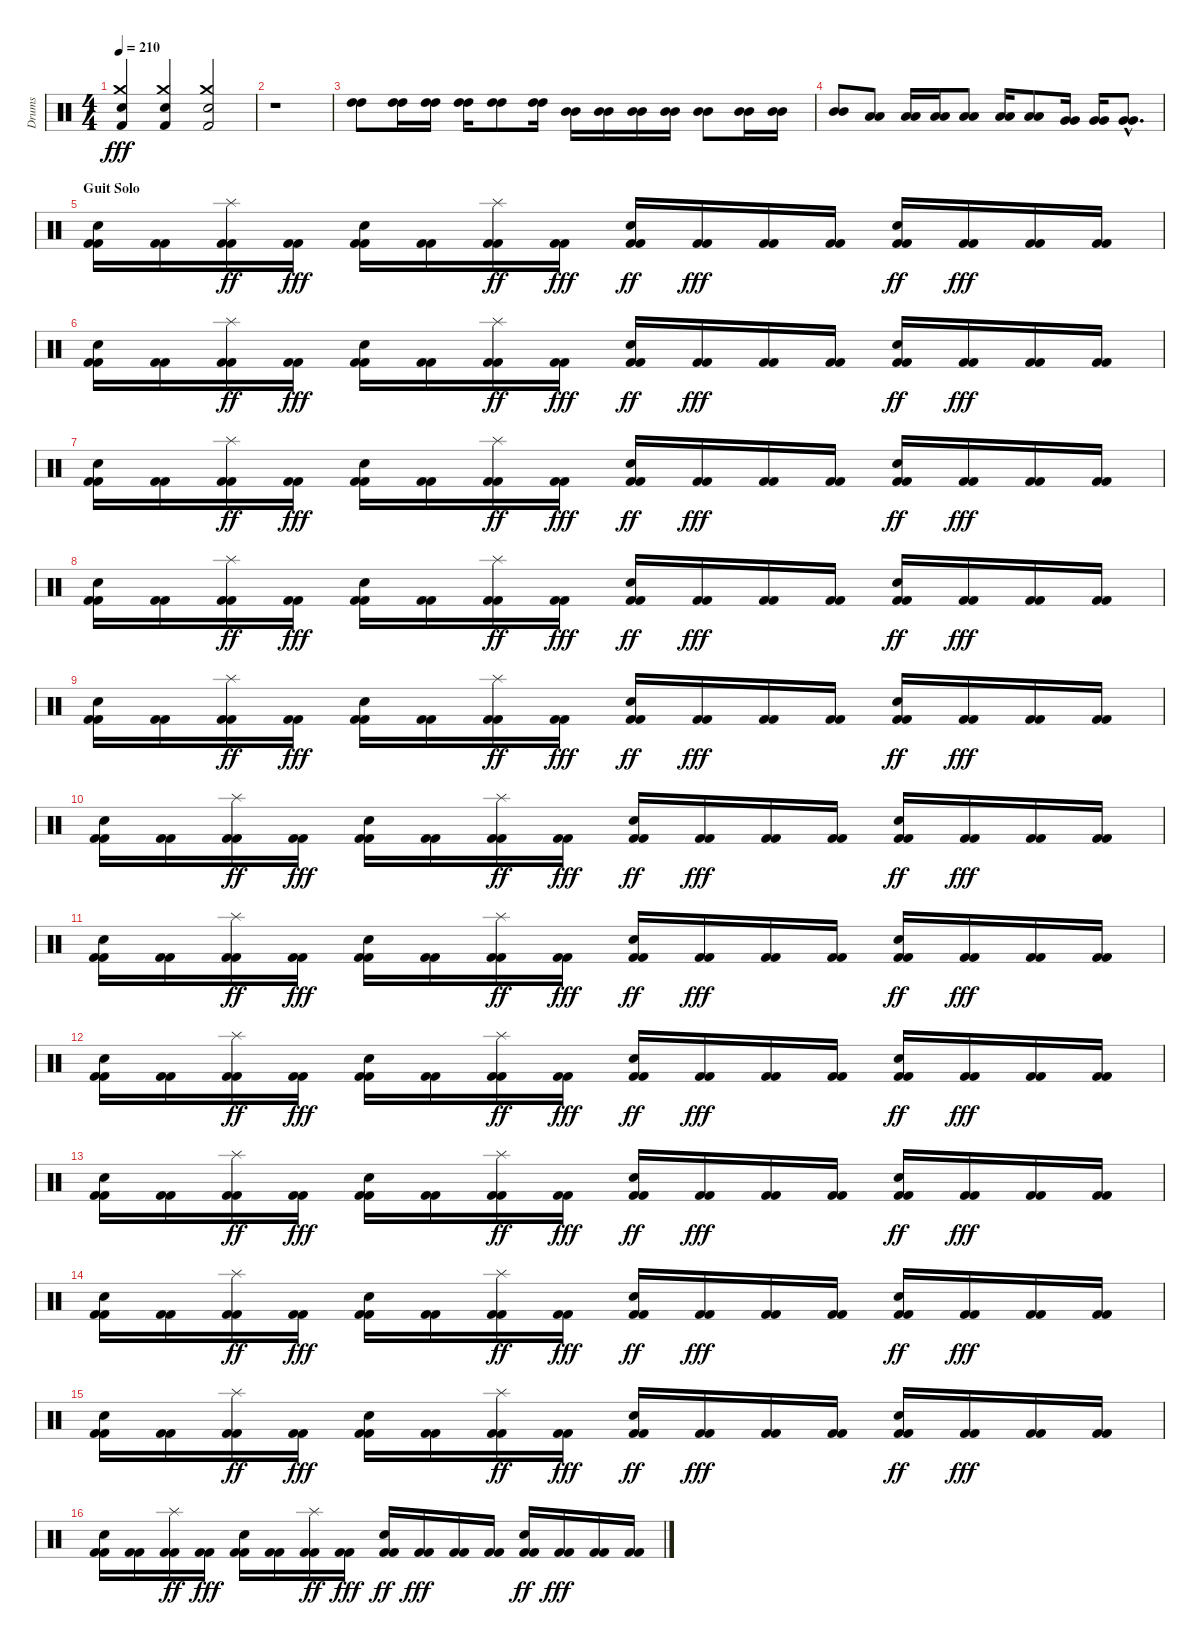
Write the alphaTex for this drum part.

\track ("Drums" "Drums") {instrument percussion}
\staff {score}
\articulation defaults
\ts (4 4)
\tempo 210
\clef neutral
\ks c
("Electric Snare (hit)" "Crash medium (hit)" "Kick (hit) 2").4{dy fff} ("Electric Snare (hit)" "Crash medium (hit)" "Kick (hit) 2").4 ("Electric Snare (hit)" "Crash medium (hit)" "Kick (hit) 2").2 |
r.1 |
("High Tom (hit)" "High Tom (hit)").8 ("High Tom (hit)" "High Tom (hit)").16 ("High Tom (hit)" "High Tom (hit)").16 ("High Tom (hit)" "High Tom (hit)").16 ("High Tom (hit)" "High Tom (hit)").8 ("High Tom (hit)" "High Tom (hit)").16 ("Mid Tom (hit)" "Mid Tom (hit)").16 ("Mid Tom (hit)" "Mid Tom (hit)").16 ("Mid Tom (hit)" "Mid Tom (hit)").16 ("Mid Tom (hit)" "Mid Tom (hit)").16 ("Mid Tom (hit)" "Mid Tom (hit)").8 ("Mid Tom (hit)" "Mid Tom (hit)").16 ("Mid Tom (hit)" "Mid Tom (hit)").16 |
("Mid Tom (hit)" "Mid Tom (hit)").8 ("Low Tom (hit)" "Low Tom (hit)").8 ("Low Tom (hit)" "Low Tom (hit)").16 ("Low Tom (hit)" "Low Tom (hit)").16 ("Low Tom (hit)" "Low Tom (hit)").8 ("Low Tom (hit)" "Low Tom (hit)").16 ("Low Tom (hit)" "Low Tom (hit)").8 ("Very Low Tom (hit)" "Very Low Tom (hit)").16 ("Very Low Tom (hit)" "Very Low Tom (hit)").16 ("Very Low Tom (hit)"{hac} "Very Low Tom (hit)"{hac}).8{d} |
\section ("" "Guit Solo")
("Electric Snare (hit)" "Kick (hit) 2" "Kick (hit) 2").16 ("Kick (hit) 2" "Kick (hit) 2").16 ("Splash (hit)" "Kick (hit) 2" "Kick (hit) 2").16{dy ff} ("Kick (hit) 2" "Kick (hit) 2").16{dy fff} ("Electric Snare (hit)" "Kick (hit) 2" "Kick (hit) 2").16 ("Kick (hit) 2" "Kick (hit) 2").16 ("Splash (hit)" "Kick (hit) 2" "Kick (hit) 2").16{dy ff} ("Kick (hit) 2" "Kick (hit) 2").16{dy fff} ("Snare (hit) 2" "Kick (hit) 2" "Kick (hit) 2").16{dy ff} ("Kick (hit) 2" "Kick (hit) 2").16{dy fff} ("Kick (hit) 2" "Kick (hit) 2").16 ("Kick (hit) 2" "Kick (hit) 2").16 ("Snare (hit) 2" "Kick (hit) 2" "Kick (hit) 2").16{dy ff} ("Kick (hit) 2" "Kick (hit) 2").16{dy fff} ("Kick (hit) 2" "Kick (hit) 2").16 ("Kick (hit) 2" "Kick (hit) 2").16 |
("Electric Snare (hit)" "Kick (hit) 2" "Kick (hit) 2").16 ("Kick (hit) 2" "Kick (hit) 2").16 ("Splash (hit)" "Kick (hit) 2" "Kick (hit) 2").16{dy ff} ("Kick (hit) 2" "Kick (hit) 2").16{dy fff} ("Electric Snare (hit)" "Kick (hit) 2" "Kick (hit) 2").16 ("Kick (hit) 2" "Kick (hit) 2").16 ("Splash (hit)" "Kick (hit) 2" "Kick (hit) 2").16{dy ff} ("Kick (hit) 2" "Kick (hit) 2").16{dy fff} ("Snare (hit) 2" "Kick (hit) 2" "Kick (hit) 2").16{dy ff} ("Kick (hit) 2" "Kick (hit) 2").16{dy fff} ("Kick (hit) 2" "Kick (hit) 2").16 ("Kick (hit) 2" "Kick (hit) 2").16 ("Snare (hit) 2" "Kick (hit) 2" "Kick (hit) 2").16{dy ff} ("Kick (hit) 2" "Kick (hit) 2").16{dy fff} ("Kick (hit) 2" "Kick (hit) 2").16 ("Kick (hit) 2" "Kick (hit) 2").16 |
("Electric Snare (hit)" "Kick (hit) 2" "Kick (hit) 2").16 ("Kick (hit) 2" "Kick (hit) 2").16 ("Splash (hit)" "Kick (hit) 2" "Kick (hit) 2").16{dy ff} ("Kick (hit) 2" "Kick (hit) 2").16{dy fff} ("Electric Snare (hit)" "Kick (hit) 2" "Kick (hit) 2").16 ("Kick (hit) 2" "Kick (hit) 2").16 ("Splash (hit)" "Kick (hit) 2" "Kick (hit) 2").16{dy ff} ("Kick (hit) 2" "Kick (hit) 2").16{dy fff} ("Snare (hit) 2" "Kick (hit) 2" "Kick (hit) 2").16{dy ff} ("Kick (hit) 2" "Kick (hit) 2").16{dy fff} ("Kick (hit) 2" "Kick (hit) 2").16 ("Kick (hit) 2" "Kick (hit) 2").16 ("Snare (hit) 2" "Kick (hit) 2" "Kick (hit) 2").16{dy ff} ("Kick (hit) 2" "Kick (hit) 2").16{dy fff} ("Kick (hit) 2" "Kick (hit) 2").16 ("Kick (hit) 2" "Kick (hit) 2").16 |
("Electric Snare (hit)" "Kick (hit) 2" "Kick (hit) 2").16 ("Kick (hit) 2" "Kick (hit) 2").16 ("Splash (hit)" "Kick (hit) 2" "Kick (hit) 2").16{dy ff} ("Kick (hit) 2" "Kick (hit) 2").16{dy fff} ("Electric Snare (hit)" "Kick (hit) 2" "Kick (hit) 2").16 ("Kick (hit) 2" "Kick (hit) 2").16 ("Splash (hit)" "Kick (hit) 2" "Kick (hit) 2").16{dy ff} ("Kick (hit) 2" "Kick (hit) 2").16{dy fff} ("Snare (hit) 2" "Kick (hit) 2" "Kick (hit) 2").16{dy ff} ("Kick (hit) 2" "Kick (hit) 2").16{dy fff} ("Kick (hit) 2" "Kick (hit) 2").16 ("Kick (hit) 2" "Kick (hit) 2").16 ("Snare (hit) 2" "Kick (hit) 2" "Kick (hit) 2").16{dy ff} ("Kick (hit) 2" "Kick (hit) 2").16{dy fff} ("Kick (hit) 2" "Kick (hit) 2").16 ("Kick (hit) 2" "Kick (hit) 2").16 |
("Electric Snare (hit)" "Kick (hit) 2" "Kick (hit) 2").16 ("Kick (hit) 2" "Kick (hit) 2").16 ("Splash (hit)" "Kick (hit) 2" "Kick (hit) 2").16{dy ff} ("Kick (hit) 2" "Kick (hit) 2").16{dy fff} ("Electric Snare (hit)" "Kick (hit) 2" "Kick (hit) 2").16 ("Kick (hit) 2" "Kick (hit) 2").16 ("Splash (hit)" "Kick (hit) 2" "Kick (hit) 2").16{dy ff} ("Kick (hit) 2" "Kick (hit) 2").16{dy fff} ("Snare (hit) 2" "Kick (hit) 2" "Kick (hit) 2").16{dy ff} ("Kick (hit) 2" "Kick (hit) 2").16{dy fff} ("Kick (hit) 2" "Kick (hit) 2").16 ("Kick (hit) 2" "Kick (hit) 2").16 ("Snare (hit) 2" "Kick (hit) 2" "Kick (hit) 2").16{dy ff} ("Kick (hit) 2" "Kick (hit) 2").16{dy fff} ("Kick (hit) 2" "Kick (hit) 2").16 ("Kick (hit) 2" "Kick (hit) 2").16 |
("Electric Snare (hit)" "Kick (hit) 2" "Kick (hit) 2").16 ("Kick (hit) 2" "Kick (hit) 2").16 ("Splash (hit)" "Kick (hit) 2" "Kick (hit) 2").16{dy ff} ("Kick (hit) 2" "Kick (hit) 2").16{dy fff} ("Electric Snare (hit)" "Kick (hit) 2" "Kick (hit) 2").16 ("Kick (hit) 2" "Kick (hit) 2").16 ("Splash (hit)" "Kick (hit) 2" "Kick (hit) 2").16{dy ff} ("Kick (hit) 2" "Kick (hit) 2").16{dy fff} ("Snare (hit) 2" "Kick (hit) 2" "Kick (hit) 2").16{dy ff} ("Kick (hit) 2" "Kick (hit) 2").16{dy fff} ("Kick (hit) 2" "Kick (hit) 2").16 ("Kick (hit) 2" "Kick (hit) 2").16 ("Snare (hit) 2" "Kick (hit) 2" "Kick (hit) 2").16{dy ff} ("Kick (hit) 2" "Kick (hit) 2").16{dy fff} ("Kick (hit) 2" "Kick (hit) 2").16 ("Kick (hit) 2" "Kick (hit) 2").16 |
("Electric Snare (hit)" "Kick (hit) 2" "Kick (hit) 2").16 ("Kick (hit) 2" "Kick (hit) 2").16 ("Splash (hit)" "Kick (hit) 2" "Kick (hit) 2").16{dy ff} ("Kick (hit) 2" "Kick (hit) 2").16{dy fff} ("Electric Snare (hit)" "Kick (hit) 2" "Kick (hit) 2").16 ("Kick (hit) 2" "Kick (hit) 2").16 ("Splash (hit)" "Kick (hit) 2" "Kick (hit) 2").16{dy ff} ("Kick (hit) 2" "Kick (hit) 2").16{dy fff} ("Snare (hit) 2" "Kick (hit) 2" "Kick (hit) 2").16{dy ff} ("Kick (hit) 2" "Kick (hit) 2").16{dy fff} ("Kick (hit) 2" "Kick (hit) 2").16 ("Kick (hit) 2" "Kick (hit) 2").16 ("Snare (hit) 2" "Kick (hit) 2" "Kick (hit) 2").16{dy ff} ("Kick (hit) 2" "Kick (hit) 2").16{dy fff} ("Kick (hit) 2" "Kick (hit) 2").16 ("Kick (hit) 2" "Kick (hit) 2").16 |
("Electric Snare (hit)" "Kick (hit) 2" "Kick (hit) 2").16 ("Kick (hit) 2" "Kick (hit) 2").16 ("Splash (hit)" "Kick (hit) 2" "Kick (hit) 2").16{dy ff} ("Kick (hit) 2" "Kick (hit) 2").16{dy fff} ("Electric Snare (hit)" "Kick (hit) 2" "Kick (hit) 2").16 ("Kick (hit) 2" "Kick (hit) 2").16 ("Splash (hit)" "Kick (hit) 2" "Kick (hit) 2").16{dy ff} ("Kick (hit) 2" "Kick (hit) 2").16{dy fff} ("Snare (hit) 2" "Kick (hit) 2" "Kick (hit) 2").16{dy ff} ("Kick (hit) 2" "Kick (hit) 2").16{dy fff} ("Kick (hit) 2" "Kick (hit) 2").16 ("Kick (hit) 2" "Kick (hit) 2").16 ("Snare (hit) 2" "Kick (hit) 2" "Kick (hit) 2").16{dy ff} ("Kick (hit) 2" "Kick (hit) 2").16{dy fff} ("Kick (hit) 2" "Kick (hit) 2").16 ("Kick (hit) 2" "Kick (hit) 2").16 |
("Electric Snare (hit)" "Kick (hit) 2" "Kick (hit) 2").16 ("Kick (hit) 2" "Kick (hit) 2").16 ("Splash (hit)" "Kick (hit) 2" "Kick (hit) 2").16{dy ff} ("Kick (hit) 2" "Kick (hit) 2").16{dy fff} ("Electric Snare (hit)" "Kick (hit) 2" "Kick (hit) 2").16 ("Kick (hit) 2" "Kick (hit) 2").16 ("Splash (hit)" "Kick (hit) 2" "Kick (hit) 2").16{dy ff} ("Kick (hit) 2" "Kick (hit) 2").16{dy fff} ("Snare (hit) 2" "Kick (hit) 2" "Kick (hit) 2").16{dy ff} ("Kick (hit) 2" "Kick (hit) 2").16{dy fff} ("Kick (hit) 2" "Kick (hit) 2").16 ("Kick (hit) 2" "Kick (hit) 2").16 ("Snare (hit) 2" "Kick (hit) 2" "Kick (hit) 2").16{dy ff} ("Kick (hit) 2" "Kick (hit) 2").16{dy fff} ("Kick (hit) 2" "Kick (hit) 2").16 ("Kick (hit) 2" "Kick (hit) 2").16 |
("Electric Snare (hit)" "Kick (hit) 2" "Kick (hit) 2").16 ("Kick (hit) 2" "Kick (hit) 2").16 ("Splash (hit)" "Kick (hit) 2" "Kick (hit) 2").16{dy ff} ("Kick (hit) 2" "Kick (hit) 2").16{dy fff} ("Electric Snare (hit)" "Kick (hit) 2" "Kick (hit) 2").16 ("Kick (hit) 2" "Kick (hit) 2").16 ("Splash (hit)" "Kick (hit) 2" "Kick (hit) 2").16{dy ff} ("Kick (hit) 2" "Kick (hit) 2").16{dy fff} ("Snare (hit) 2" "Kick (hit) 2" "Kick (hit) 2").16{dy ff} ("Kick (hit) 2" "Kick (hit) 2").16{dy fff} ("Kick (hit) 2" "Kick (hit) 2").16 ("Kick (hit) 2" "Kick (hit) 2").16 ("Snare (hit) 2" "Kick (hit) 2" "Kick (hit) 2").16{dy ff} ("Kick (hit) 2" "Kick (hit) 2").16{dy fff} ("Kick (hit) 2" "Kick (hit) 2").16 ("Kick (hit) 2" "Kick (hit) 2").16 |
("Electric Snare (hit)" "Kick (hit) 2" "Kick (hit) 2").16 ("Kick (hit) 2" "Kick (hit) 2").16 ("Splash (hit)" "Kick (hit) 2" "Kick (hit) 2").16{dy ff} ("Kick (hit) 2" "Kick (hit) 2").16{dy fff} ("Electric Snare (hit)" "Kick (hit) 2" "Kick (hit) 2").16 ("Kick (hit) 2" "Kick (hit) 2").16 ("Splash (hit)" "Kick (hit) 2" "Kick (hit) 2").16{dy ff} ("Kick (hit) 2" "Kick (hit) 2").16{dy fff} ("Snare (hit) 2" "Kick (hit) 2" "Kick (hit) 2").16{dy ff} ("Kick (hit) 2" "Kick (hit) 2").16{dy fff} ("Kick (hit) 2" "Kick (hit) 2").16 ("Kick (hit) 2" "Kick (hit) 2").16 ("Snare (hit) 2" "Kick (hit) 2" "Kick (hit) 2").16{dy ff} ("Kick (hit) 2" "Kick (hit) 2").16{dy fff} ("Kick (hit) 2" "Kick (hit) 2").16 ("Kick (hit) 2" "Kick (hit) 2").16 |
("Electric Snare (hit)" "Kick (hit) 2" "Kick (hit) 2").16 ("Kick (hit) 2" "Kick (hit) 2").16 ("Splash (hit)" "Kick (hit) 2" "Kick (hit) 2").16{dy ff} ("Kick (hit) 2" "Kick (hit) 2").16{dy fff} ("Electric Snare (hit)" "Kick (hit) 2" "Kick (hit) 2").16 ("Kick (hit) 2" "Kick (hit) 2").16 ("Splash (hit)" "Kick (hit) 2" "Kick (hit) 2").16{dy ff} ("Kick (hit) 2" "Kick (hit) 2").16{dy fff} ("Snare (hit) 2" "Kick (hit) 2" "Kick (hit) 2").16{dy ff} ("Kick (hit) 2" "Kick (hit) 2").16{dy fff} ("Kick (hit) 2" "Kick (hit) 2").16 ("Kick (hit) 2" "Kick (hit) 2").16 ("Snare (hit) 2" "Kick (hit) 2" "Kick (hit) 2").16{dy ff} ("Kick (hit) 2" "Kick (hit) 2").16{dy fff} ("Kick (hit) 2" "Kick (hit) 2").16 ("Kick (hit) 2" "Kick (hit) 2").16
